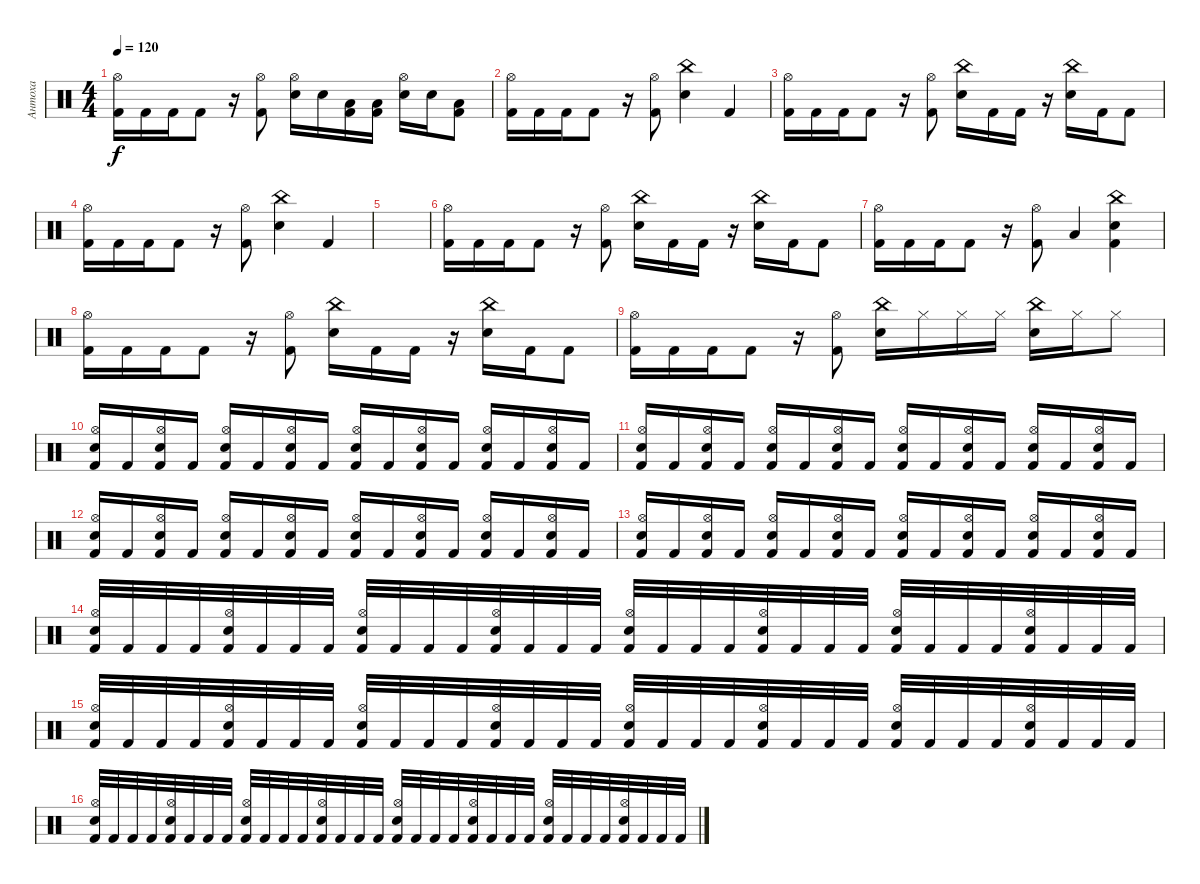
\track ("Антоха" "Антоха") {instrument percussion}
\staff {score}
\articulation defaults
\ts (4 4)
\tempo 120
\clef neutral
\ks c
("Kick (hit) 2" "Hi-Hat (open)").16{dy f} "Kick (hit) 2".16 "Kick (hit) 2".16 "Kick (hit) 2".8 r.16 ("Kick (hit) 2" "Hi-Hat (open)").8 ("Electric Snare (hit)" "Hi-Hat (open)").16 "Electric Snare (hit)".16 ("Kick (hit) 2" "Low Floor Tom (hit)").16 ("Kick (hit) 2" "Low Floor Tom (hit)").16 ("Electric Snare (hit)" "Hi-Hat (open)").16 "Electric Snare (hit)".16 ("Kick (hit) 2" "Low Floor Tom (hit)").8 |
("Kick (hit) 2" "Hi-Hat (open)").16 "Kick (hit) 2".16 "Kick (hit) 2".16 "Kick (hit) 2".8 r.16 ("Kick (hit) 2" "Hi-Hat (open)").8 ("Electric Snare (hit)" "China (hit)").4 "Kick (hit) 2".4 |
("Kick (hit) 2" "Hi-Hat (open)").16 "Kick (hit) 2".16 "Kick (hit) 2".16 "Kick (hit) 2".8 r.16 ("Kick (hit) 2" "Hi-Hat (open)").8 ("Electric Snare (hit)" "China (hit)").16 "Kick (hit) 2".16 "Kick (hit) 2".16 r.16 ("Electric Snare (hit)" "China (hit)").16 "Kick (hit) 2".16 "Kick (hit) 2".8 |
("Kick (hit) 2" "Hi-Hat (open)").16 "Kick (hit) 2".16 "Kick (hit) 2".16 "Kick (hit) 2".8 r.16 ("Kick (hit) 2" "Hi-Hat (open)").8 ("Electric Snare (hit)" "China (hit)").4 "Kick (hit) 2".4 |
|
("Kick (hit) 2" "Hi-Hat (open)").16 "Kick (hit) 2".16 "Kick (hit) 2".16 "Kick (hit) 2".8 r.16 ("Kick (hit) 2" "Hi-Hat (open)").8 ("Electric Snare (hit)" "China (hit)").16 "Kick (hit) 2".16 "Kick (hit) 2".16 r.16 ("Electric Snare (hit)" "China (hit)").16 "Kick (hit) 2".16 "Kick (hit) 2".8 |
("Kick (hit) 2" "Hi-Hat (open)").16 "Kick (hit) 2".16 "Kick (hit) 2".16 "Kick (hit) 2".8 r.16 ("Kick (hit) 2" "Hi-Hat (open)").8 "Low Floor Tom (hit)".4 ("Kick (hit) 2" "Electric Snare (hit)" "China (hit)").4 |
("Kick (hit) 2" "Hi-Hat (open)").16 "Kick (hit) 2".16 "Kick (hit) 2".16 "Kick (hit) 2".8 r.16 ("Kick (hit) 2" "Hi-Hat (open)").8 ("Electric Snare (hit)" "China (hit)").16 "Kick (hit) 2".16 "Kick (hit) 2".16 r.16 ("Electric Snare (hit)" "China (hit)").16 "Kick (hit) 2".16 "Kick (hit) 2".8 |
("Kick (hit) 2" "Hi-Hat (open)").16 "Kick (hit) 2".16 "Kick (hit) 2".16 "Kick (hit) 2".8 r.16 ("Kick (hit) 2" "Hi-Hat (open)").8 ("Electric Snare (hit)" "China (hit)").16 "Hi-Hat (closed)".16 "Hi-Hat (closed)".16 "Hi-Hat (closed)".16 ("Electric Snare (hit)" "China (hit)").16 "Hi-Hat (closed)".16 "Hi-Hat (closed)".8 |
("Kick (hit) 2" "Electric Snare (hit)" "Hi-Hat (open)").16 "Kick (hit) 2".16 ("Kick (hit) 2" "Electric Snare (hit)" "Hi-Hat (open)").16 "Kick (hit) 2".16 ("Kick (hit) 2" "Electric Snare (hit)" "Hi-Hat (open)").16 "Kick (hit) 2".16 ("Kick (hit) 2" "Electric Snare (hit)" "Hi-Hat (open)").16 "Kick (hit) 2".16 ("Kick (hit) 2" "Electric Snare (hit)" "Hi-Hat (open)").16 "Kick (hit) 2".16 ("Kick (hit) 2" "Electric Snare (hit)" "Hi-Hat (open)").16 "Kick (hit) 2".16 ("Kick (hit) 2" "Electric Snare (hit)" "Hi-Hat (open)").16 "Kick (hit) 2".16 ("Kick (hit) 2" "Electric Snare (hit)" "Hi-Hat (open)").16 "Kick (hit) 2".16 |
("Kick (hit) 2" "Electric Snare (hit)" "Hi-Hat (open)").16 "Kick (hit) 2".16 ("Kick (hit) 2" "Electric Snare (hit)" "Hi-Hat (open)").16 "Kick (hit) 2".16 ("Kick (hit) 2" "Electric Snare (hit)" "Hi-Hat (open)").16 "Kick (hit) 2".16 ("Kick (hit) 2" "Electric Snare (hit)" "Hi-Hat (open)").16 "Kick (hit) 2".16 ("Kick (hit) 2" "Electric Snare (hit)" "Hi-Hat (open)").16 "Kick (hit) 2".16 ("Kick (hit) 2" "Electric Snare (hit)" "Hi-Hat (open)").16 "Kick (hit) 2".16 ("Kick (hit) 2" "Electric Snare (hit)" "Hi-Hat (open)").16 "Kick (hit) 2".16 ("Kick (hit) 2" "Electric Snare (hit)" "Hi-Hat (open)").16 "Kick (hit) 2".16 |
("Kick (hit) 2" "Electric Snare (hit)" "Hi-Hat (open)").16 "Kick (hit) 2".16 ("Kick (hit) 2" "Electric Snare (hit)" "Hi-Hat (open)").16 "Kick (hit) 2".16 ("Kick (hit) 2" "Electric Snare (hit)" "Hi-Hat (open)").16 "Kick (hit) 2".16 ("Kick (hit) 2" "Electric Snare (hit)" "Hi-Hat (open)").16 "Kick (hit) 2".16 ("Kick (hit) 2" "Electric Snare (hit)" "Hi-Hat (open)").16 "Kick (hit) 2".16 ("Kick (hit) 2" "Electric Snare (hit)" "Hi-Hat (open)").16 "Kick (hit) 2".16 ("Kick (hit) 2" "Electric Snare (hit)" "Hi-Hat (open)").16 "Kick (hit) 2".16 ("Kick (hit) 2" "Electric Snare (hit)" "Hi-Hat (open)").16 "Kick (hit) 2".16 |
("Kick (hit) 2" "Electric Snare (hit)" "Hi-Hat (open)").16 "Kick (hit) 2".16 ("Kick (hit) 2" "Electric Snare (hit)" "Hi-Hat (open)").16 "Kick (hit) 2".16 ("Kick (hit) 2" "Electric Snare (hit)" "Hi-Hat (open)").16 "Kick (hit) 2".16 ("Kick (hit) 2" "Electric Snare (hit)" "Hi-Hat (open)").16 "Kick (hit) 2".16 ("Kick (hit) 2" "Electric Snare (hit)" "Hi-Hat (open)").16 "Kick (hit) 2".16 ("Kick (hit) 2" "Electric Snare (hit)" "Hi-Hat (open)").16 "Kick (hit) 2".16 ("Kick (hit) 2" "Electric Snare (hit)" "Hi-Hat (open)").16 "Kick (hit) 2".16 ("Kick (hit) 2" "Electric Snare (hit)" "Hi-Hat (open)").16 "Kick (hit) 2".16 |
("Kick (hit) 2" "Electric Snare (hit)" "Hi-Hat (open)").32 "Kick (hit) 2".32 "Kick (hit) 2".32 "Kick (hit) 2".32 ("Kick (hit) 2" "Electric Snare (hit)" "Hi-Hat (open)").32 "Kick (hit) 2".32 "Kick (hit) 2".32 "Kick (hit) 2".32 ("Kick (hit) 2" "Electric Snare (hit)" "Hi-Hat (open)").32 "Kick (hit) 2".32 "Kick (hit) 2".32 "Kick (hit) 2".32 ("Kick (hit) 2" "Electric Snare (hit)" "Hi-Hat (open)").32 "Kick (hit) 2".32 "Kick (hit) 2".32 "Kick (hit) 2".32 ("Kick (hit) 2" "Electric Snare (hit)" "Hi-Hat (open)").32 "Kick (hit) 2".32 "Kick (hit) 2".32 "Kick (hit) 2".32 ("Kick (hit) 2" "Electric Snare (hit)" "Hi-Hat (open)").32 "Kick (hit) 2".32 "Kick (hit) 2".32 "Kick (hit) 2".32 ("Kick (hit) 2" "Electric Snare (hit)" "Hi-Hat (open)").32 "Kick (hit) 2".32 "Kick (hit) 2".32 "Kick (hit) 2".32 ("Kick (hit) 2" "Electric Snare (hit)" "Hi-Hat (open)").32 "Kick (hit) 2".32 "Kick (hit) 2".32 "Kick (hit) 2".32 |
("Kick (hit) 2" "Electric Snare (hit)" "Hi-Hat (open)").32 "Kick (hit) 2".32 "Kick (hit) 2".32 "Kick (hit) 2".32 ("Kick (hit) 2" "Electric Snare (hit)" "Hi-Hat (open)").32 "Kick (hit) 2".32 "Kick (hit) 2".32 "Kick (hit) 2".32 ("Kick (hit) 2" "Electric Snare (hit)" "Hi-Hat (open)").32 "Kick (hit) 2".32 "Kick (hit) 2".32 "Kick (hit) 2".32 ("Kick (hit) 2" "Electric Snare (hit)" "Hi-Hat (open)").32 "Kick (hit) 2".32 "Kick (hit) 2".32 "Kick (hit) 2".32 ("Kick (hit) 2" "Electric Snare (hit)" "Hi-Hat (open)").32 "Kick (hit) 2".32 "Kick (hit) 2".32 "Kick (hit) 2".32 ("Kick (hit) 2" "Electric Snare (hit)" "Hi-Hat (open)").32 "Kick (hit) 2".32 "Kick (hit) 2".32 "Kick (hit) 2".32 ("Kick (hit) 2" "Electric Snare (hit)" "Hi-Hat (open)").32 "Kick (hit) 2".32 "Kick (hit) 2".32 "Kick (hit) 2".32 ("Kick (hit) 2" "Electric Snare (hit)" "Hi-Hat (open)").32 "Kick (hit) 2".32 "Kick (hit) 2".32 "Kick (hit) 2".32 |
("Kick (hit) 2" "Electric Snare (hit)" "Hi-Hat (open)").32 "Kick (hit) 2".32 "Kick (hit) 2".32 "Kick (hit) 2".32 ("Kick (hit) 2" "Electric Snare (hit)" "Hi-Hat (open)").32 "Kick (hit) 2".32 "Kick (hit) 2".32 "Kick (hit) 2".32 ("Kick (hit) 2" "Electric Snare (hit)" "Hi-Hat (open)").32 "Kick (hit) 2".32 "Kick (hit) 2".32 "Kick (hit) 2".32 ("Kick (hit) 2" "Electric Snare (hit)" "Hi-Hat (open)").32 "Kick (hit) 2".32 "Kick (hit) 2".32 "Kick (hit) 2".32 ("Kick (hit) 2" "Electric Snare (hit)" "Hi-Hat (open)").32 "Kick (hit) 2".32 "Kick (hit) 2".32 "Kick (hit) 2".32 ("Kick (hit) 2" "Electric Snare (hit)" "Hi-Hat (open)").32 "Kick (hit) 2".32 "Kick (hit) 2".32 "Kick (hit) 2".32 ("Kick (hit) 2" "Electric Snare (hit)" "Hi-Hat (open)").32 "Kick (hit) 2".32 "Kick (hit) 2".32 "Kick (hit) 2".32 ("Kick (hit) 2" "Electric Snare (hit)" "Hi-Hat (open)").32 "Kick (hit) 2".32 "Kick (hit) 2".32 "Kick (hit) 2".32
